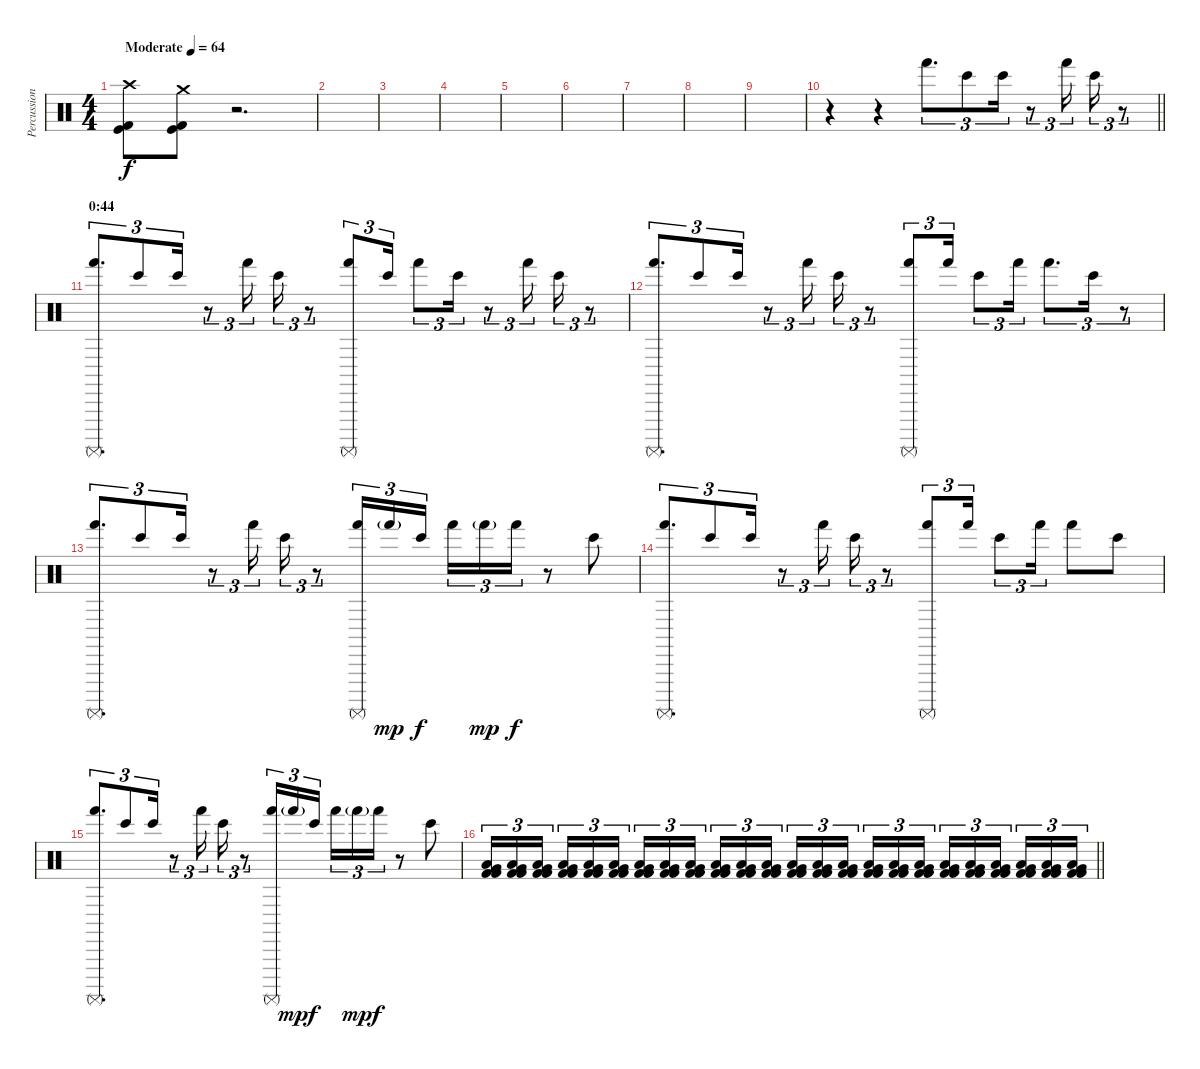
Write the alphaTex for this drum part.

\track ("Percussion" "Percussion") {instrument percussion}
\staff {score}
\articulation defaults
\ts (4 4)
\tempo (64 "Moderate")
\clef neutral
\ks c
("Crash high (hit)" "Kick (hit)" "Kick (hit) 2").8{dy f} ("Crash medium (hit)" "Kick (hit)" "Kick (hit) 2").8 r.2{d} |
|
|
|
|
|
|
|
|
\barLineRight lightlight
r.4 r.4 "Hand (hit)".8{d tu (3 2)} "Bongo High (hit)".8{tu (3 2)} "Bongo High (hit)".16{tu (3 2)} r.8{tu (3 2)} "Hand (hit)".16{tu (3 2)} "Bongo High (hit)".16{tu (3 2)} r.8{tu (3 2)} |
\section ("" "0:44")
("Hand (hit)" "Surdo (mute)").8{d tu (3 2)} "Bongo High (hit)".8{tu (3 2)} "Bongo High (hit)".16{tu (3 2)} r.8{tu (3 2)} "Hand (hit)".16{tu (3 2)} "Bongo High (hit)".16{tu (3 2)} r.8{tu (3 2)} ("Hand (hit)" "Surdo (mute)").8{tu (3 2)} "Bongo High (hit)".16{tu (3 2)} "Hand (hit)".8{tu (3 2)} "Bongo High (hit)".16{tu (3 2)} r.8{tu (3 2)} "Hand (hit)".16{tu (3 2)} "Bongo High (hit)".16{tu (3 2)} r.8{tu (3 2)} |
("Hand (hit)" "Surdo (mute)").8{d tu (3 2)} "Bongo High (hit)".8{tu (3 2)} "Bongo High (hit)".16{tu (3 2)} r.8{tu (3 2)} "Hand (hit)".16{tu (3 2)} "Bongo High (hit)".16{tu (3 2)} r.8{tu (3 2)} ("Hand (hit)" "Surdo (mute)").8{tu (3 2)} "Hand (hit)".16{tu (3 2)} "Bongo High (hit)".8{tu (3 2)} "Hand (hit)".16{tu (3 2)} "Hand (hit)".8{d tu (3 2)} "Bongo High (hit)".16{tu (3 2)} r.8{tu (3 2)} |
("Hand (hit)" "Surdo (mute)").8{d tu (3 2)} "Bongo High (hit)".8{tu (3 2)} "Bongo High (hit)".16{tu (3 2)} r.8{tu (3 2)} "Hand (hit)".16{tu (3 2)} "Bongo High (hit)".16{tu (3 2)} r.8{tu (3 2)} ("Hand (hit)" "Surdo (mute)").16{tu (3 2)} "Hand (hit)"{g}.16{tu (3 2) dy mp} "Bongo High (hit)".16{tu (3 2) dy f beam splitsecondary} "Hand (hit)".16{tu (3 2)} "Hand (hit)"{g}.16{tu (3 2) dy mp} "Hand (hit)".16{tu (3 2) dy f} r.8 "Bongo High (hit)".8 |
("Hand (hit)" "Surdo (mute)").8{d tu (3 2)} "Bongo High (hit)".8{tu (3 2)} "Bongo High (hit)".16{tu (3 2)} r.8{tu (3 2)} "Hand (hit)".16{tu (3 2)} "Bongo High (hit)".16{tu (3 2)} r.8{tu (3 2)} ("Hand (hit)" "Surdo (mute)").8{tu (3 2)} "Hand (hit)".16{tu (3 2)} "Bongo High (hit)".8{tu (3 2)} "Hand (hit)".16{tu (3 2)} "Hand (hit)".8 "Bongo High (hit)".8 |
("Hand (hit)" "Surdo (mute)").8{d tu (3 2)} "Bongo High (hit)".8{tu (3 2)} "Bongo High (hit)".16{tu (3 2)} r.8{tu (3 2)} "Hand (hit)".16{tu (3 2)} "Bongo High (hit)".16{tu (3 2)} r.8{tu (3 2)} ("Hand (hit)" "Surdo (mute)").16{tu (3 2)} "Hand (hit)"{g}.16{tu (3 2) dy mp} "Bongo High (hit)".16{tu (3 2) dy f beam splitsecondary} "Hand (hit)".16{tu (3 2)} "Hand (hit)"{g}.16{tu (3 2) dy mp} "Hand (hit)".16{tu (3 2) dy f} r.8 "Bongo High (hit)".8 |
\barLineRight lightlight
("Low Floor Tom (hit)" "Very Low Tom (hit)" "Kick (hit) 2" "Kick (hit) 2").16{tu (3 2)} ("Low Floor Tom (hit)" "Very Low Tom (hit)" "Kick (hit) 2" "Kick (hit) 2").16{tu (3 2)} ("Low Floor Tom (hit)" "Very Low Tom (hit)" "Kick (hit) 2" "Kick (hit) 2").16{tu (3 2) beam splitsecondary} ("Low Floor Tom (hit)" "Very Low Tom (hit)" "Kick (hit) 2" "Kick (hit) 2").16{tu (3 2)} ("Low Floor Tom (hit)" "Very Low Tom (hit)" "Kick (hit) 2" "Kick (hit) 2").16{tu (3 2)} ("Low Floor Tom (hit)" "Very Low Tom (hit)" "Kick (hit) 2" "Kick (hit) 2").16{tu (3 2)} ("Low Floor Tom (hit)" "Very Low Tom (hit)" "Kick (hit) 2" "Kick (hit) 2").16{tu (3 2)} ("Low Floor Tom (hit)" "Very Low Tom (hit)" "Kick (hit) 2" "Kick (hit) 2").16{tu (3 2)} ("Low Floor Tom (hit)" "Very Low Tom (hit)" "Kick (hit) 2" "Kick (hit) 2").16{tu (3 2) beam splitsecondary} ("Low Floor Tom (hit)" "Very Low Tom (hit)" "Kick (hit) 2" "Kick (hit) 2").16{tu (3 2)} ("Low Floor Tom (hit)" "Very Low Tom (hit)" "Kick (hit) 2" "Kick (hit) 2").16{tu (3 2)} ("Low Floor Tom (hit)" "Very Low Tom (hit)" "Kick (hit) 2" "Kick (hit) 2").16{tu (3 2)} ("Low Floor Tom (hit)" "Very Low Tom (hit)" "Kick (hit) 2" "Kick (hit) 2").16{tu (3 2)} ("Low Floor Tom (hit)" "Very Low Tom (hit)" "Kick (hit) 2" "Kick (hit) 2").16{tu (3 2)} ("Low Floor Tom (hit)" "Very Low Tom (hit)" "Kick (hit) 2" "Kick (hit) 2").16{tu (3 2) beam splitsecondary} ("Low Floor Tom (hit)" "Very Low Tom (hit)" "Kick (hit) 2" "Kick (hit) 2").16{tu (3 2)} ("Low Floor Tom (hit)" "Very Low Tom (hit)" "Kick (hit) 2" "Kick (hit) 2").16{tu (3 2)} ("Low Floor Tom (hit)" "Very Low Tom (hit)" "Kick (hit) 2" "Kick (hit) 2").16{tu (3 2)} ("Low Floor Tom (hit)" "Very Low Tom (hit)" "Kick (hit) 2" "Kick (hit) 2").16{tu (3 2)} ("Low Floor Tom (hit)" "Very Low Tom (hit)" "Kick (hit) 2" "Kick (hit) 2").16{tu (3 2)} ("Low Floor Tom (hit)" "Very Low Tom (hit)" "Kick (hit) 2" "Kick (hit) 2").16{tu (3 2) beam splitsecondary} ("Low Floor Tom (hit)" "Very Low Tom (hit)" "Kick (hit) 2" "Kick (hit) 2").16{tu (3 2)} ("Low Floor Tom (hit)" "Very Low Tom (hit)" "Kick (hit) 2" "Kick (hit) 2").16{tu (3 2)} ("Low Floor Tom (hit)" "Very Low Tom (hit)" "Kick (hit) 2" "Kick (hit) 2").16{tu (3 2)}
